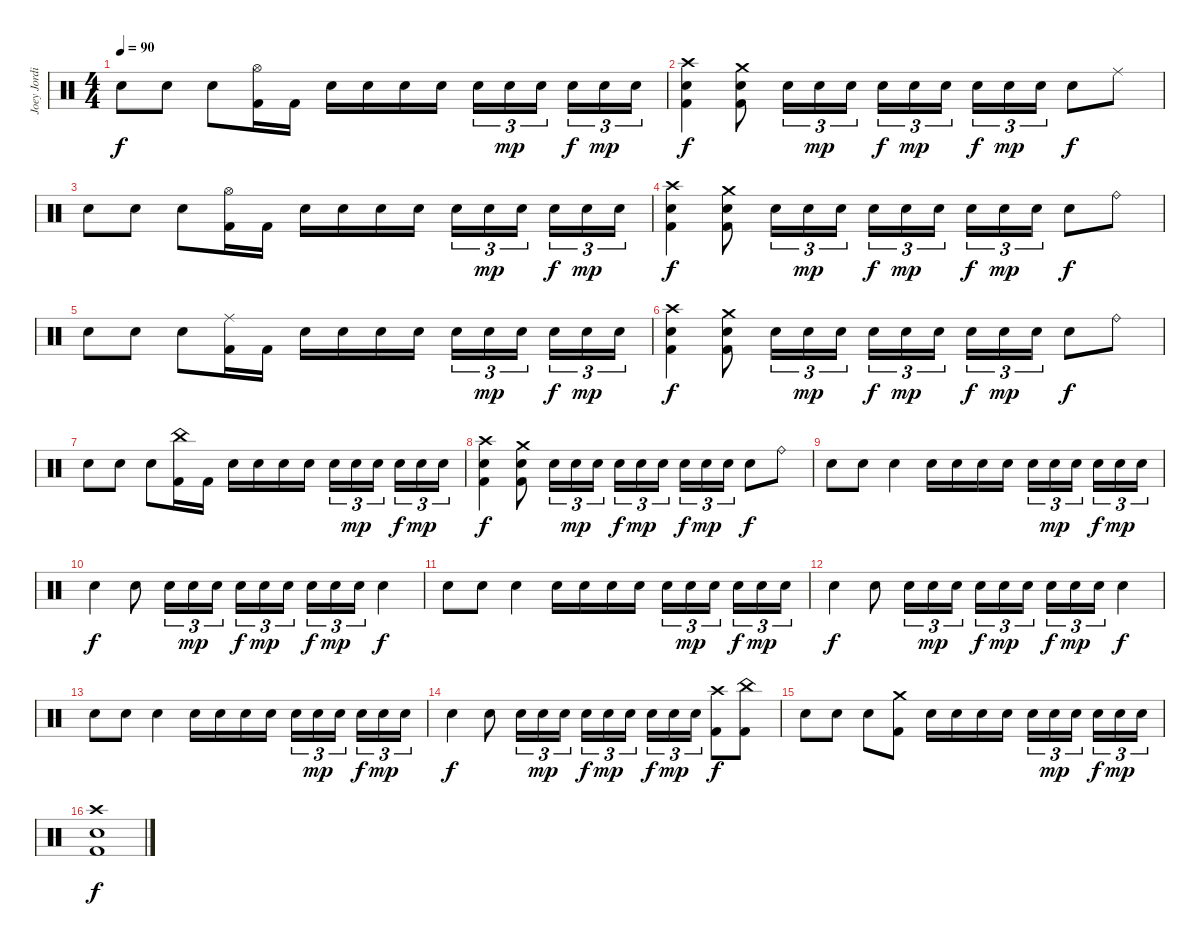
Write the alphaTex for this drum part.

\track ("Joey Jordison" "Joey Jordi") {instrument percussion}
\staff {score}
\articulation defaults
\ts (4 4)
\tempo 90
\clef neutral
\ks c "Electric Snare (hit)".8{dy f} "Electric Snare (hit)".8 "Electric Snare (hit)".8
("Hi-Hat (open)" "Kick (hit) 2").16 "Kick (hit) 2".16 "Electric Snare (hit)".16 "Electric Snare (hit)".16 "Electric Snare (hit)".16 "Electric Snare (hit)".16 "Electric Snare (hit)".16{tu (3 2)} "Electric Snare (hit)".16{tu (3 2) dy mp} "Electric Snare (hit)".16{tu (3 2) beam splitsecondary} "Electric Snare (hit)".16{tu (3 2) dy f} "Electric Snare (hit)".16{tu (3 2) dy mp} "Electric Snare (hit)".16{tu (3 2)} |
("Crash high (hit)" "Electric Snare (hit)" "Kick (hit) 2").4{dy f} ("Crash medium (hit)" "Electric Snare (hit)" "Kick (hit) 2").8 "Electric Snare (hit)".16{tu (3 2)} "Electric Snare (hit)".16{tu (3 2) dy mp} "Electric Snare (hit)".16{tu (3 2)} "Electric Snare (hit)".16{tu (3 2) dy f} "Electric Snare (hit)".16{tu (3 2) dy mp} "Electric Snare (hit)".16{tu (3 2) beam splitsecondary} "Electric Snare (hit)".16{tu (3 2) dy f} "Electric Snare (hit)".16{tu (3 2) dy mp} "Electric Snare (hit)".16{tu (3 2)} "Electric Snare (hit)".8{dy f} "Ride (middle)".8 |
"Electric Snare (hit)".8 "Electric Snare (hit)".8 "Electric Snare (hit)".8 ("Hi-Hat (open)" "Kick (hit) 2").16 "Kick (hit) 2".16 "Electric Snare (hit)".16 "Electric Snare (hit)".16 "Electric Snare (hit)".16 "Electric Snare (hit)".16 "Electric Snare (hit)".16{tu (3 2)} "Electric Snare (hit)".16{tu (3 2) dy mp} "Electric Snare (hit)".16{tu (3 2) beam splitsecondary} "Electric Snare (hit)".16{tu (3 2) dy f} "Electric Snare (hit)".16{tu (3 2) dy mp} "Electric Snare (hit)".16{tu (3 2)} |
("Crash high (hit)" "Electric Snare (hit)" "Kick (hit) 2").4{dy f} ("Crash medium (hit)" "Electric Snare (hit)" "Kick (hit) 2").8 "Electric Snare (hit)".16{tu (3 2)} "Electric Snare (hit)".16{tu (3 2) dy mp} "Electric Snare (hit)".16{tu (3 2)} "Electric Snare (hit)".16{tu (3 2) dy f} "Electric Snare (hit)".16{tu (3 2) dy mp} "Electric Snare (hit)".16{tu (3 2) beam splitsecondary} "Electric Snare (hit)".16{tu (3 2) dy f} "Electric Snare (hit)".16{tu (3 2) dy mp} "Electric Snare (hit)".16{tu (3 2)} "Electric Snare (hit)".8{dy f} "Ride (bell)".8 |
"Electric Snare (hit)".8 "Electric Snare (hit)".8 "Electric Snare (hit)".8 ("Ride (middle)" "Kick (hit) 2").16 "Kick (hit) 2".16 "Electric Snare (hit)".16 "Electric Snare (hit)".16 "Electric Snare (hit)".16 "Electric Snare (hit)".16 "Electric Snare (hit)".16{tu (3 2)} "Electric Snare (hit)".16{tu (3 2) dy mp} "Electric Snare (hit)".16{tu (3 2) beam splitsecondary} "Electric Snare (hit)".16{tu (3 2) dy f} "Electric Snare (hit)".16{tu (3 2) dy mp} "Electric Snare (hit)".16{tu (3 2)} |
("Crash high (hit)" "Electric Snare (hit)" "Kick (hit) 2").4{dy f} ("Crash medium (hit)" "Electric Snare (hit)" "Kick (hit) 2").8 "Electric Snare (hit)".16{tu (3 2)} "Electric Snare (hit)".16{tu (3 2) dy mp} "Electric Snare (hit)".16{tu (3 2)} "Electric Snare (hit)".16{tu (3 2) dy f} "Electric Snare (hit)".16{tu (3 2) dy mp} "Electric Snare (hit)".16{tu (3 2) beam splitsecondary} "Electric Snare (hit)".16{tu (3 2) dy f} "Electric Snare (hit)".16{tu (3 2) dy mp} "Electric Snare (hit)".16{tu (3 2)} "Electric Snare (hit)".8{dy f} "Ride (bell)".8 |
"Electric Snare (hit)".8 "Electric Snare (hit)".8 "Electric Snare (hit)".8 ("China (hit)" "Kick (hit) 2").16 "Kick (hit) 2".16 "Electric Snare (hit)".16 "Electric Snare (hit)".16 "Electric Snare (hit)".16 "Electric Snare (hit)".16 "Electric Snare (hit)".16{tu (3 2)} "Electric Snare (hit)".16{tu (3 2) dy mp} "Electric Snare (hit)".16{tu (3 2) beam splitsecondary} "Electric Snare (hit)".16{tu (3 2) dy f} "Electric Snare (hit)".16{tu (3 2) dy mp} "Electric Snare (hit)".16{tu (3 2)} |
("Crash high (hit)" "Electric Snare (hit)" "Kick (hit) 2").4{dy f} ("Crash medium (hit)" "Electric Snare (hit)" "Kick (hit) 2").8 "Electric Snare (hit)".16{tu (3 2)} "Electric Snare (hit)".16{tu (3 2) dy mp} "Electric Snare (hit)".16{tu (3 2)} "Electric Snare (hit)".16{tu (3 2) dy f} "Electric Snare (hit)".16{tu (3 2) dy mp} "Electric Snare (hit)".16{tu (3 2) beam splitsecondary} "Electric Snare (hit)".16{tu (3 2) dy f} "Electric Snare (hit)".16{tu (3 2) dy mp} "Electric Snare (hit)".16{tu (3 2)} "Electric Snare (hit)".8{dy f} "Ride (bell)".8 |
"Electric Snare (hit)".8 "Electric Snare (hit)".8 "Electric Snare (hit)".4 "Electric Snare (hit)".16 "Electric Snare (hit)".16 "Electric Snare (hit)".16 "Electric Snare (hit)".16 "Electric Snare (hit)".16{tu (3 2)} "Electric Snare (hit)".16{tu (3 2) dy mp} "Electric Snare (hit)".16{tu (3 2) beam splitsecondary} "Electric Snare (hit)".16{tu (3 2) dy f} "Electric Snare (hit)".16{tu (3 2) dy mp} "Electric Snare (hit)".16{tu (3 2)} |
"Electric Snare (hit)".4{dy f} "Electric Snare (hit)".8 "Electric Snare (hit)".16{tu (3 2)} "Electric Snare (hit)".16{tu (3 2) dy mp} "Electric Snare (hit)".16{tu (3 2)} "Electric Snare (hit)".16{tu (3 2) dy f} "Electric Snare (hit)".16{tu (3 2) dy mp} "Electric Snare (hit)".16{tu (3 2) beam splitsecondary} "Electric Snare (hit)".16{tu (3 2) dy f} "Electric Snare (hit)".16{tu (3 2) dy mp} "Electric Snare (hit)".16{tu (3 2)} "Electric Snare (hit)".4{dy f} |
"Electric Snare (hit)".8 "Electric Snare (hit)".8 "Electric Snare (hit)".4 "Electric Snare (hit)".16 "Electric Snare (hit)".16 "Electric Snare (hit)".16 "Electric Snare (hit)".16 "Electric Snare (hit)".16{tu (3 2)} "Electric Snare (hit)".16{tu (3 2) dy mp} "Electric Snare (hit)".16{tu (3 2) beam splitsecondary} "Electric Snare (hit)".16{tu (3 2) dy f} "Electric Snare (hit)".16{tu (3 2) dy mp} "Electric Snare (hit)".16{tu (3 2)} |
"Electric Snare (hit)".4{dy f} "Electric Snare (hit)".8 "Electric Snare (hit)".16{tu (3 2)} "Electric Snare (hit)".16{tu (3 2) dy mp} "Electric Snare (hit)".16{tu (3 2)} "Electric Snare (hit)".16{tu (3 2) dy f} "Electric Snare (hit)".16{tu (3 2) dy mp} "Electric Snare (hit)".16{tu (3 2) beam splitsecondary} "Electric Snare (hit)".16{tu (3 2) dy f} "Electric Snare (hit)".16{tu (3 2) dy mp} "Electric Snare (hit)".16{tu (3 2)} "Electric Snare (hit)".4{dy f} |
"Electric Snare (hit)".8 "Electric Snare (hit)".8 "Electric Snare (hit)".4 "Electric Snare (hit)".16 "Electric Snare (hit)".16 "Electric Snare (hit)".16 "Electric Snare (hit)".16 "Electric Snare (hit)".16{tu (3 2)} "Electric Snare (hit)".16{tu (3 2) dy mp} "Electric Snare (hit)".16{tu (3 2) beam splitsecondary} "Electric Snare (hit)".16{tu (3 2) dy f} "Electric Snare (hit)".16{tu (3 2) dy mp} "Electric Snare (hit)".16{tu (3 2)} |
"Electric Snare (hit)".4{dy f} "Electric Snare (hit)".8 "Electric Snare (hit)".16{tu (3 2)} "Electric Snare (hit)".16{tu (3 2) dy mp} "Electric Snare (hit)".16{tu (3 2)} "Electric Snare (hit)".16{tu (3 2) dy f} "Electric Snare (hit)".16{tu (3 2) dy mp} "Electric Snare (hit)".16{tu (3 2) beam splitsecondary} "Electric Snare (hit)".16{tu (3 2) dy f} "Electric Snare (hit)".16{tu (3 2) dy mp} "Electric Snare (hit)".16{tu (3 2)} ("Crash high (hit)" "Kick (hit) 2").8{dy f} ("China (hit)" "Kick (hit) 2").8 |
"Electric Snare (hit)".8 "Electric Snare (hit)".8 "Electric Snare (hit)".8 ("Crash medium (hit)" "Kick (hit) 2").8 "Electric Snare (hit)".16 "Electric Snare (hit)".16 "Electric Snare (hit)".16 "Electric Snare (hit)".16 "Electric Snare (hit)".16{tu (3 2)} "Electric Snare (hit)".16{tu (3 2) dy mp} "Electric Snare (hit)".16{tu (3 2) beam splitsecondary} "Electric Snare (hit)".16{tu (3 2) dy f} "Electric Snare (hit)".16{tu (3 2) dy mp} "Electric Snare (hit)".16{tu (3 2)} |
("Crash high (hit)" "Electric Snare (hit)" "Kick (hit) 2").1{dy f}
